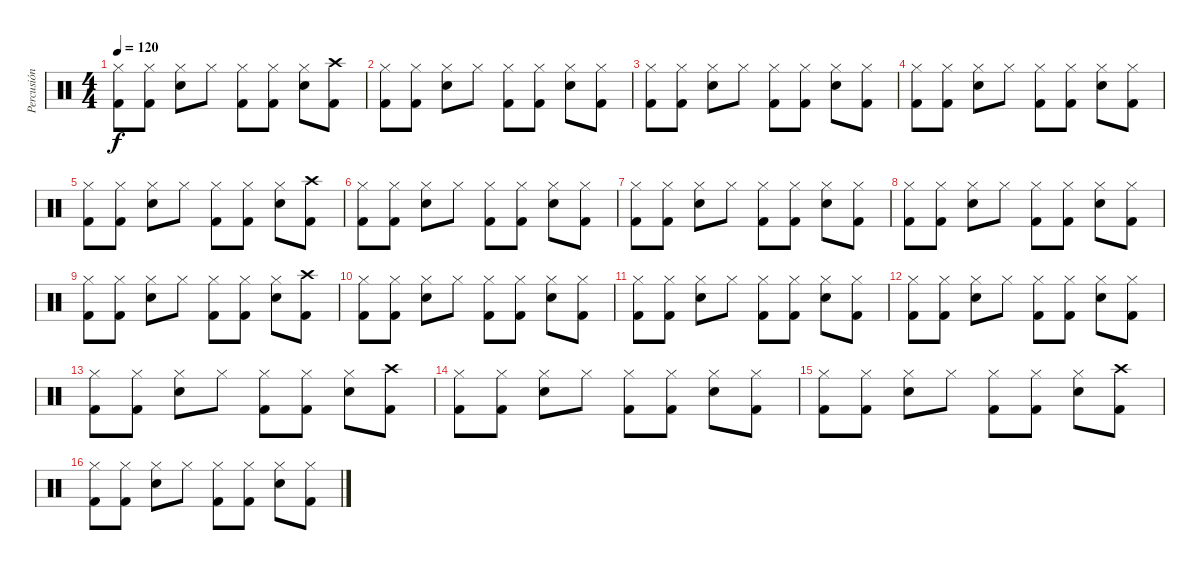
\track ("Percusión" "Percusión") {instrument percussion}
\staff {score}
\articulation defaults
\ts (4 4)
\tempo 120
\clef neutral
\ks c
("Hi-Hat (closed)" "Kick (hit) 2").8{dy f} ("Hi-Hat (closed)" "Kick (hit) 2").8 ("Hi-Hat (closed)" "Snare (hit) 2").8 "Hi-Hat (closed)".8 ("Hi-Hat (closed)" "Kick (hit) 2").8 ("Hi-Hat (closed)" "Kick (hit) 2").8 ("Hi-Hat (closed)" "Snare (hit) 2").8 ("Crash high (hit)" "Kick (hit) 2").8 |
("Hi-Hat (closed)" "Kick (hit) 2").8 ("Hi-Hat (closed)" "Kick (hit) 2").8 ("Hi-Hat (closed)" "Snare (hit) 2").8 "Hi-Hat (closed)".8 ("Hi-Hat (closed)" "Kick (hit) 2").8 ("Hi-Hat (closed)" "Kick (hit) 2").8 ("Hi-Hat (closed)" "Snare (hit) 2").8 ("Hi-Hat (closed)" "Kick (hit) 2").8 |
("Hi-Hat (closed)" "Kick (hit) 2").8 ("Hi-Hat (closed)" "Kick (hit) 2").8 ("Hi-Hat (closed)" "Snare (hit) 2").8 "Hi-Hat (closed)".8 ("Hi-Hat (closed)" "Kick (hit) 2").8 ("Hi-Hat (closed)" "Kick (hit) 2").8 ("Hi-Hat (closed)" "Snare (hit) 2").8 ("Hi-Hat (closed)" "Kick (hit) 2").8 |
("Hi-Hat (closed)" "Kick (hit) 2").8 ("Hi-Hat (closed)" "Kick (hit) 2").8 ("Hi-Hat (closed)" "Snare (hit) 2").8 "Hi-Hat (closed)".8 ("Hi-Hat (closed)" "Kick (hit) 2").8 ("Hi-Hat (closed)" "Kick (hit) 2").8 ("Hi-Hat (closed)" "Snare (hit) 2").8 ("Hi-Hat (closed)" "Kick (hit) 2").8 |
("Hi-Hat (closed)" "Kick (hit) 2").8 ("Hi-Hat (closed)" "Kick (hit) 2").8 ("Hi-Hat (closed)" "Snare (hit) 2").8 "Hi-Hat (closed)".8 ("Hi-Hat (closed)" "Kick (hit) 2").8 ("Hi-Hat (closed)" "Kick (hit) 2").8 ("Hi-Hat (closed)" "Snare (hit) 2").8 ("Crash high (hit)" "Kick (hit) 2").8 |
("Hi-Hat (closed)" "Kick (hit) 2").8 ("Hi-Hat (closed)" "Kick (hit) 2").8 ("Hi-Hat (closed)" "Snare (hit) 2").8 "Hi-Hat (closed)".8 ("Hi-Hat (closed)" "Kick (hit) 2").8 ("Hi-Hat (closed)" "Kick (hit) 2").8 ("Hi-Hat (closed)" "Snare (hit) 2").8 ("Hi-Hat (closed)" "Kick (hit) 2").8 |
("Hi-Hat (closed)" "Kick (hit) 2").8 ("Hi-Hat (closed)" "Kick (hit) 2").8 ("Hi-Hat (closed)" "Snare (hit) 2").8 "Hi-Hat (closed)".8 ("Hi-Hat (closed)" "Kick (hit) 2").8 ("Hi-Hat (closed)" "Kick (hit) 2").8 ("Hi-Hat (closed)" "Snare (hit) 2").8 ("Hi-Hat (closed)" "Kick (hit) 2").8 |
("Hi-Hat (closed)" "Kick (hit) 2").8 ("Hi-Hat (closed)" "Kick (hit) 2").8 ("Hi-Hat (closed)" "Snare (hit) 2").8 "Hi-Hat (closed)".8 ("Hi-Hat (closed)" "Kick (hit) 2").8 ("Hi-Hat (closed)" "Kick (hit) 2").8 ("Hi-Hat (closed)" "Snare (hit) 2").8 ("Hi-Hat (closed)" "Kick (hit) 2").8 |
("Hi-Hat (closed)" "Kick (hit) 2").8 ("Hi-Hat (closed)" "Kick (hit) 2").8 ("Hi-Hat (closed)" "Snare (hit) 2").8 "Hi-Hat (closed)".8 ("Hi-Hat (closed)" "Kick (hit) 2").8 ("Hi-Hat (closed)" "Kick (hit) 2").8 ("Hi-Hat (closed)" "Snare (hit) 2").8 ("Crash high (hit)" "Kick (hit) 2").8 |
("Hi-Hat (closed)" "Kick (hit) 2").8 ("Hi-Hat (closed)" "Kick (hit) 2").8 ("Hi-Hat (closed)" "Snare (hit) 2").8 "Hi-Hat (closed)".8 ("Hi-Hat (closed)" "Kick (hit) 2").8 ("Hi-Hat (closed)" "Kick (hit) 2").8 ("Hi-Hat (closed)" "Snare (hit) 2").8 ("Hi-Hat (closed)" "Kick (hit) 2").8 |
("Hi-Hat (closed)" "Kick (hit) 2").8 ("Hi-Hat (closed)" "Kick (hit) 2").8 ("Hi-Hat (closed)" "Snare (hit) 2").8 "Hi-Hat (closed)".8 ("Hi-Hat (closed)" "Kick (hit) 2").8 ("Hi-Hat (closed)" "Kick (hit) 2").8 ("Hi-Hat (closed)" "Snare (hit) 2").8 ("Hi-Hat (closed)" "Kick (hit) 2").8 |
("Hi-Hat (closed)" "Kick (hit) 2").8 ("Hi-Hat (closed)" "Kick (hit) 2").8 ("Hi-Hat (closed)" "Snare (hit) 2").8 "Hi-Hat (closed)".8 ("Hi-Hat (closed)" "Kick (hit) 2").8 ("Hi-Hat (closed)" "Kick (hit) 2").8 ("Hi-Hat (closed)" "Snare (hit) 2").8 ("Hi-Hat (closed)" "Kick (hit) 2").8 |
("Hi-Hat (closed)" "Kick (hit) 2").8 ("Hi-Hat (closed)" "Kick (hit) 2").8 ("Hi-Hat (closed)" "Snare (hit) 2").8 "Hi-Hat (closed)".8 ("Hi-Hat (closed)" "Kick (hit) 2").8 ("Hi-Hat (closed)" "Kick (hit) 2").8 ("Hi-Hat (closed)" "Snare (hit) 2").8 ("Crash high (hit)" "Kick (hit) 2").8 |
("Hi-Hat (closed)" "Kick (hit) 2").8 ("Hi-Hat (closed)" "Kick (hit) 2").8 ("Hi-Hat (closed)" "Snare (hit) 2").8 "Hi-Hat (closed)".8 ("Hi-Hat (closed)" "Kick (hit) 2").8 ("Hi-Hat (closed)" "Kick (hit) 2").8 ("Hi-Hat (closed)" "Snare (hit) 2").8 ("Hi-Hat (closed)" "Kick (hit) 2").8 |
("Hi-Hat (closed)" "Kick (hit) 2").8 ("Hi-Hat (closed)" "Kick (hit) 2").8 ("Hi-Hat (closed)" "Snare (hit) 2").8 "Hi-Hat (closed)".8 ("Hi-Hat (closed)" "Kick (hit) 2").8 ("Hi-Hat (closed)" "Kick (hit) 2").8 ("Hi-Hat (closed)" "Snare (hit) 2").8 ("Crash high (hit)" "Kick (hit) 2").8 |
("Hi-Hat (closed)" "Kick (hit) 2").8 ("Hi-Hat (closed)" "Kick (hit) 2").8 ("Hi-Hat (closed)" "Snare (hit) 2").8 "Hi-Hat (closed)".8 ("Hi-Hat (closed)" "Kick (hit) 2").8 ("Hi-Hat (closed)" "Kick (hit) 2").8 ("Hi-Hat (closed)" "Snare (hit) 2").8 ("Hi-Hat (closed)" "Kick (hit) 2").8
